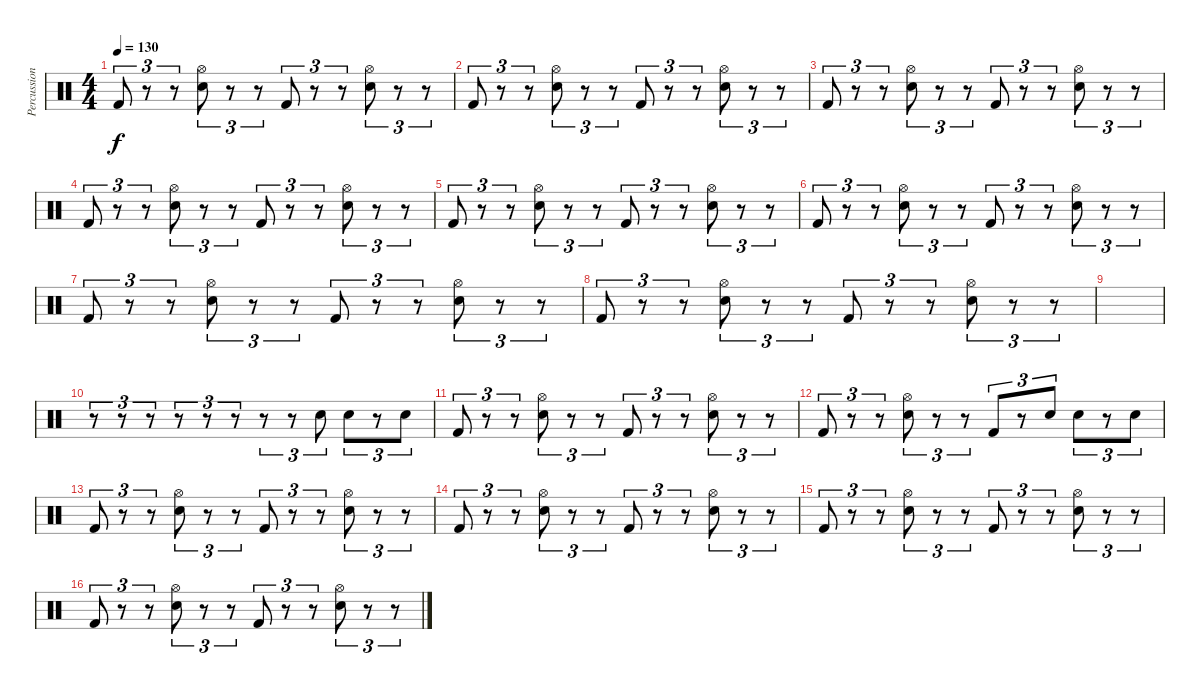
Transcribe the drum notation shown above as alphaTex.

\track ("Percussion" "Percussion") {instrument percussion bank 2}
\staff {score}
\articulation defaults
\ts (4 4)
\tempo 130
\clef neutral
\ks c "Kick (hit) 2".8{tu (3 2) dy f}
r.8{tu (3 2)} r.8{tu (3 2)} ("Hi-Hat (open)" "Snare (hit) 2").8{tu (3 2)} r.8{tu (3 2)} r.8{tu (3 2)} "Kick (hit) 2".8{tu (3 2)} r.8{tu (3 2)} r.8{tu (3 2)} ("Hi-Hat (open)" "Snare (hit) 2").8{tu (3 2)} r.8{tu (3 2)} r.8{tu (3 2)} |
"Kick (hit) 2".8{tu (3 2)} r.8{tu (3 2)} r.8{tu (3 2)} ("Hi-Hat (open)" "Snare (hit) 2").8{tu (3 2)} r.8{tu (3 2)} r.8{tu (3 2)} "Kick (hit) 2".8{tu (3 2)} r.8{tu (3 2)} r.8{tu (3 2)} ("Hi-Hat (open)" "Snare (hit) 2").8{tu (3 2)} r.8{tu (3 2)} r.8{tu (3 2)} |
"Kick (hit) 2".8{tu (3 2)} r.8{tu (3 2)} r.8{tu (3 2)} ("Hi-Hat (open)" "Snare (hit) 2").8{tu (3 2)} r.8{tu (3 2)} r.8{tu (3 2)} "Kick (hit) 2".8{tu (3 2)} r.8{tu (3 2)} r.8{tu (3 2)} ("Hi-Hat (open)" "Snare (hit) 2").8{tu (3 2)} r.8{tu (3 2)} r.8{tu (3 2)} |
"Kick (hit) 2".8{tu (3 2)} r.8{tu (3 2)} r.8{tu (3 2)} ("Hi-Hat (open)" "Snare (hit) 2").8{tu (3 2)} r.8{tu (3 2)} r.8{tu (3 2)} "Kick (hit) 2".8{tu (3 2)} r.8{tu (3 2)} r.8{tu (3 2)} ("Hi-Hat (open)" "Snare (hit) 2").8{tu (3 2)} r.8{tu (3 2)} r.8{tu (3 2)} |
"Kick (hit) 2".8{tu (3 2)} r.8{tu (3 2)} r.8{tu (3 2)} ("Hi-Hat (open)" "Snare (hit) 2").8{tu (3 2)} r.8{tu (3 2)} r.8{tu (3 2)} "Kick (hit) 2".8{tu (3 2)} r.8{tu (3 2)} r.8{tu (3 2)} ("Hi-Hat (open)" "Snare (hit) 2").8{tu (3 2)} r.8{tu (3 2)} r.8{tu (3 2)} |
"Kick (hit) 2".8{tu (3 2)} r.8{tu (3 2)} r.8{tu (3 2)} ("Hi-Hat (open)" "Snare (hit) 2").8{tu (3 2)} r.8{tu (3 2)} r.8{tu (3 2)} "Kick (hit) 2".8{tu (3 2)} r.8{tu (3 2)} r.8{tu (3 2)} ("Hi-Hat (open)" "Snare (hit) 2").8{tu (3 2)} r.8{tu (3 2)} r.8{tu (3 2)} |
"Kick (hit) 2".8{tu (3 2)} r.8{tu (3 2)} r.8{tu (3 2)} ("Hi-Hat (open)" "Snare (hit) 2").8{tu (3 2)} r.8{tu (3 2)} r.8{tu (3 2)} "Kick (hit) 2".8{tu (3 2)} r.8{tu (3 2)} r.8{tu (3 2)} ("Hi-Hat (open)" "Snare (hit) 2").8{tu (3 2)} r.8{tu (3 2)} r.8{tu (3 2)} |
"Kick (hit) 2".8{tu (3 2)} r.8{tu (3 2)} r.8{tu (3 2)} ("Hi-Hat (open)" "Snare (hit) 2").8{tu (3 2)} r.8{tu (3 2)} r.8{tu (3 2)} "Kick (hit) 2".8{tu (3 2)} r.8{tu (3 2)} r.8{tu (3 2)} ("Hi-Hat (open)" "Snare (hit) 2").8{tu (3 2)} r.8{tu (3 2)} r.8{tu (3 2)} |
|
r.8{tu (3 2)} r.8{tu (3 2)} r.8{tu (3 2)} r.8{tu (3 2)} r.8{tu (3 2)} r.8{tu (3 2)} r.8{tu (3 2)} r.8{tu (3 2)} "Snare (hit) 2".8{tu (3 2)} "Snare (hit) 2".8{tu (3 2)} r.8{tu (3 2)} "Snare (hit) 2".8{tu (3 2)} |
"Kick (hit) 2".8{tu (3 2)} r.8{tu (3 2)} r.8{tu (3 2)} ("Hi-Hat (open)" "Snare (hit) 2").8{tu (3 2)} r.8{tu (3 2)} r.8{tu (3 2)} "Kick (hit) 2".8{tu (3 2)} r.8{tu (3 2)} r.8{tu (3 2)} ("Hi-Hat (open)" "Snare (hit) 2").8{tu (3 2)} r.8{tu (3 2)} r.8{tu (3 2)} |
"Kick (hit) 2".8{tu (3 2)} r.8{tu (3 2)} r.8{tu (3 2)} ("Hi-Hat (open)" "Snare (hit) 2").8{tu (3 2)} r.8{tu (3 2)} r.8{tu (3 2)} "Kick (hit) 2".8{tu (3 2)} r.8{tu (3 2)} "Snare (hit) 2".8{tu (3 2)} "Snare (hit) 2".8{tu (3 2)} r.8{tu (3 2)} "Snare (hit) 2".8{tu (3 2)} |
"Kick (hit) 2".8{tu (3 2)} r.8{tu (3 2)} r.8{tu (3 2)} ("Hi-Hat (open)" "Snare (hit) 2").8{tu (3 2)} r.8{tu (3 2)} r.8{tu (3 2)} "Kick (hit) 2".8{tu (3 2)} r.8{tu (3 2)} r.8{tu (3 2)} ("Hi-Hat (open)" "Snare (hit) 2").8{tu (3 2)} r.8{tu (3 2)} r.8{tu (3 2)} |
"Kick (hit) 2".8{tu (3 2)} r.8{tu (3 2)} r.8{tu (3 2)} ("Hi-Hat (open)" "Snare (hit) 2").8{tu (3 2)} r.8{tu (3 2)} r.8{tu (3 2)} "Kick (hit) 2".8{tu (3 2)} r.8{tu (3 2)} r.8{tu (3 2)} ("Hi-Hat (open)" "Snare (hit) 2").8{tu (3 2)} r.8{tu (3 2)} r.8{tu (3 2)} |
"Kick (hit) 2".8{tu (3 2)} r.8{tu (3 2)} r.8{tu (3 2)} ("Hi-Hat (open)" "Snare (hit) 2").8{tu (3 2)} r.8{tu (3 2)} r.8{tu (3 2)} "Kick (hit) 2".8{tu (3 2)} r.8{tu (3 2)} r.8{tu (3 2)} ("Hi-Hat (open)" "Snare (hit) 2").8{tu (3 2)} r.8{tu (3 2)} r.8{tu (3 2)} |
"Kick (hit) 2".8{tu (3 2)} r.8{tu (3 2)} r.8{tu (3 2)} ("Hi-Hat (open)" "Snare (hit) 2").8{tu (3 2)} r.8{tu (3 2)} r.8{tu (3 2)} "Kick (hit) 2".8{tu (3 2)} r.8{tu (3 2)} r.8{tu (3 2)} ("Hi-Hat (open)" "Snare (hit) 2").8{tu (3 2)} r.8{tu (3 2)} r.8{tu (3 2)}
